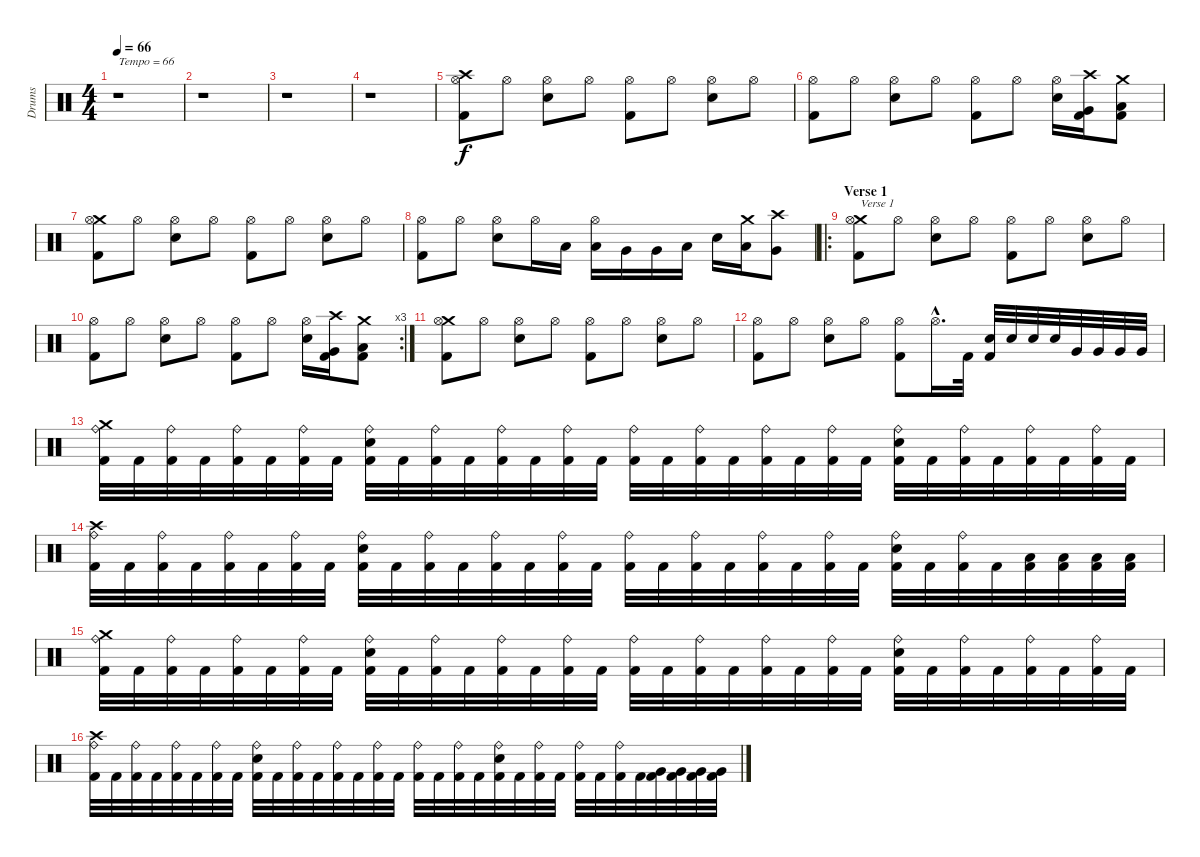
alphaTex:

\track ("Drums" "Drums") {instrument percussion}
\staff {score}
\articulation defaults
\ts (4 4)
\tempo 66
\clef neutral
\ks c
r.1{txt "Tempo = 66" dy f} |
r.1 |
r.1 |
r.1 |
("Crash high (hit)" "Hi-Hat (open)" "Kick (hit) 2").8 "Hi-Hat (open)".8 ("Hi-Hat (open)" "Electric Snare (hit)").8 "Hi-Hat (open)".8 ("Hi-Hat (open)" "Kick (hit) 2").8 "Hi-Hat (open)".8 ("Hi-Hat (open)" "Electric Snare (hit)").8 "Hi-Hat (open)".8 |
("Hi-Hat (open)" "Kick (hit) 2").8 "Hi-Hat (open)".8 ("Hi-Hat (open)" "Electric Snare (hit)").8 "Hi-Hat (open)".8 ("Hi-Hat (open)" "Kick (hit) 2").8 "Hi-Hat (open)".8 ("Hi-Hat (open)" "Electric Snare (hit)").16 ("Crash high (hit)" "Very Low Tom (hit)" "Kick (hit) 2").16 ("Crash medium (hit)" "Low Floor Tom (hit)" "Kick (hit) 2").8 |
("Crash medium (hit)" "Hi-Hat (open)" "Kick (hit) 2").8 "Hi-Hat (open)".8 ("Hi-Hat (open)" "Electric Snare (hit)").8 "Hi-Hat (open)".8 ("Hi-Hat (open)" "Kick (hit) 2").8 "Hi-Hat (open)".8 ("Hi-Hat (open)" "Electric Snare (hit)").8 "Hi-Hat (open)".8 |
("Hi-Hat (open)" "Kick (hit) 2").8 "Hi-Hat (open)".8 ("Hi-Hat (open)" "Electric Snare (hit)").8 "Hi-Hat (open)".16 "Low Floor Tom (hit)".16 ("Hi-Hat (open)" "Low Floor Tom (hit)").16 "Very Low Tom (hit)".16 "Very Low Tom (hit)".16 "Low Tom (hit)".16 "Electric Snare (hit)".16 ("Crash medium (hit)" "Low Tom (hit)").16 ("Crash high (hit)" "Very Low Tom (hit)").8 |
\ro
\section ("" "Verse 1")
("Crash medium (hit)" "Hi-Hat (open)" "Kick (hit) 2").8{txt "Verse 1"} "Hi-Hat (open)".8 ("Hi-Hat (open)" "Electric Snare (hit)").8 "Hi-Hat (open)".8 ("Hi-Hat (open)" "Kick (hit) 2").8 "Hi-Hat (open)".8 ("Hi-Hat (open)" "Electric Snare (hit)").8 "Hi-Hat (open)".8 |
\rc 3
("Hi-Hat (open)" "Kick (hit) 2").8 "Hi-Hat (open)".8 ("Hi-Hat (open)" "Electric Snare (hit)").8 "Hi-Hat (open)".8 ("Hi-Hat (open)" "Kick (hit) 2").8 "Hi-Hat (open)".8 ("Hi-Hat (open)" "Electric Snare (hit)").16 ("Crash high (hit)" "Very Low Tom (hit)" "Kick (hit) 2").16 ("Crash medium (hit)" "Low Floor Tom (hit)" "Kick (hit) 2").8 |
("Crash medium (hit)" "Hi-Hat (open)" "Kick (hit) 2").8 "Hi-Hat (open)".8 ("Hi-Hat (open)" "Electric Snare (hit)").8 "Hi-Hat (open)".8 ("Hi-Hat (open)" "Kick (hit) 2").8 "Hi-Hat (open)".8 ("Hi-Hat (open)" "Electric Snare (hit)").8 "Hi-Hat (open)".8 |
("Hi-Hat (open)" "Kick (hit) 2").8 "Hi-Hat (open)".8 ("Hi-Hat (open)" "Electric Snare (hit)").8 "Hi-Hat (open)".8 ("Hi-Hat (open)" "Kick (hit) 2").8 "Hi-Hat (open)"{hac}.16{d} "Kick (hit) 2".32 ("Electric Snare (hit)" "Kick (hit) 2").32 "Electric Snare (hit)".32 "Electric Snare (hit)".32 "Electric Snare (hit)".32 "Very Low Tom (hit)".32 "Very Low Tom (hit)".32 "Very Low Tom (hit)".32 "Very Low Tom (hit)".32 |
("Crash medium (hit)" "Ride (bell)" "Kick (hit) 2").32 "Kick (hit) 2".32 ("Ride (bell)" "Kick (hit) 2").32 "Kick (hit) 2".32 ("Ride (bell)" "Kick (hit) 2").32 "Kick (hit) 2".32 ("Ride (bell)" "Kick (hit) 2").32 "Kick (hit) 2".32 ("Ride (bell)" "Electric Snare (hit)" "Kick (hit) 2").32 "Kick (hit) 2".32 ("Ride (bell)" "Kick (hit) 2").32 "Kick (hit) 2".32 ("Ride (bell)" "Kick (hit) 2").32 "Kick (hit) 2".32 ("Ride (bell)" "Kick (hit) 2").32 "Kick (hit) 2".32 ("Ride (bell)" "Kick (hit) 2").32 "Kick (hit) 2".32 ("Ride (bell)" "Kick (hit) 2").32 "Kick (hit) 2".32 ("Ride (bell)" "Kick (hit) 2").32 "Kick (hit) 2".32 ("Ride (bell)" "Kick (hit) 2").32 "Kick (hit) 2".32 ("Ride (bell)" "Electric Snare (hit)" "Kick (hit) 2").32 "Kick (hit) 2".32 ("Ride (bell)" "Kick (hit) 2").32 "Kick (hit) 2".32 ("Ride (bell)" "Kick (hit) 2").32 "Kick (hit) 2".32 ("Ride (bell)" "Kick (hit) 2").32 "Kick (hit) 2".32 |
("Crash high (hit)" "Ride (bell)" "Kick (hit) 2").32 "Kick (hit) 2".32 ("Ride (bell)" "Kick (hit) 2").32 "Kick (hit) 2".32 ("Ride (bell)" "Kick (hit) 2").32 "Kick (hit) 2".32 ("Ride (bell)" "Kick (hit) 2").32 "Kick (hit) 2".32 ("Ride (bell)" "Electric Snare (hit)" "Kick (hit) 2").32 "Kick (hit) 2".32 ("Ride (bell)" "Kick (hit) 2").32 "Kick (hit) 2".32 ("Ride (bell)" "Kick (hit) 2").32 "Kick (hit) 2".32 ("Ride (bell)" "Kick (hit) 2").32 "Kick (hit) 2".32 ("Ride (bell)" "Kick (hit) 2").32 "Kick (hit) 2".32 ("Ride (bell)" "Kick (hit) 2").32 "Kick (hit) 2".32 ("Ride (bell)" "Kick (hit) 2").32 "Kick (hit) 2".32 ("Ride (bell)" "Kick (hit) 2").32 "Kick (hit) 2".32 ("Ride (bell)" "Electric Snare (hit)" "Kick (hit) 2").32 "Kick (hit) 2".32 ("Ride (bell)" "Kick (hit) 2").32 "Kick (hit) 2".32 ("Low Floor Tom (hit)" "Kick (hit) 2").32 ("Low Floor Tom (hit)" "Kick (hit) 2").32 ("Low Floor Tom (hit)" "Kick (hit) 2").32 ("Low Floor Tom (hit)" "Kick (hit) 2").32 |
("Crash medium (hit)" "Ride (bell)" "Kick (hit) 2").32 "Kick (hit) 2".32 ("Ride (bell)" "Kick (hit) 2").32 "Kick (hit) 2".32 ("Ride (bell)" "Kick (hit) 2").32 "Kick (hit) 2".32 ("Ride (bell)" "Kick (hit) 2").32 "Kick (hit) 2".32 ("Ride (bell)" "Electric Snare (hit)" "Kick (hit) 2").32 "Kick (hit) 2".32 ("Ride (bell)" "Kick (hit) 2").32 "Kick (hit) 2".32 ("Ride (bell)" "Kick (hit) 2").32 "Kick (hit) 2".32 ("Ride (bell)" "Kick (hit) 2").32 "Kick (hit) 2".32 ("Ride (bell)" "Kick (hit) 2").32 "Kick (hit) 2".32 ("Ride (bell)" "Kick (hit) 2").32 "Kick (hit) 2".32 ("Ride (bell)" "Kick (hit) 2").32 "Kick (hit) 2".32 ("Ride (bell)" "Kick (hit) 2").32 "Kick (hit) 2".32 ("Ride (bell)" "Electric Snare (hit)" "Kick (hit) 2").32 "Kick (hit) 2".32 ("Ride (bell)" "Kick (hit) 2").32 "Kick (hit) 2".32 ("Ride (bell)" "Kick (hit) 2").32 "Kick (hit) 2".32 ("Ride (bell)" "Kick (hit) 2").32 "Kick (hit) 2".32 |
("Crash high (hit)" "Ride (bell)" "Kick (hit) 2").32 "Kick (hit) 2".32 ("Ride (bell)" "Kick (hit) 2").32 "Kick (hit) 2".32 ("Ride (bell)" "Kick (hit) 2").32 "Kick (hit) 2".32 ("Ride (bell)" "Kick (hit) 2").32 "Kick (hit) 2".32 ("Ride (bell)" "Electric Snare (hit)" "Kick (hit) 2").32 "Kick (hit) 2".32 ("Ride (bell)" "Kick (hit) 2").32 "Kick (hit) 2".32 ("Ride (bell)" "Kick (hit) 2").32 "Kick (hit) 2".32 ("Ride (bell)" "Kick (hit) 2").32 "Kick (hit) 2".32 ("Ride (bell)" "Kick (hit) 2").32 "Kick (hit) 2".32 ("Ride (bell)" "Kick (hit) 2").32 "Kick (hit) 2".32 ("Ride (bell)" "Electric Snare (hit)" "Kick (hit) 2").32 "Kick (hit) 2".32 ("Ride (bell)" "Kick (hit) 2").32 "Kick (hit) 2".32 ("Ride (bell)" "Kick (hit) 2").32 "Kick (hit) 2".32 ("Ride (bell)" "Kick (hit) 2").32 "Kick (hit) 2".32 ("Very Low Tom (hit)" "Kick (hit) 2").32 ("Very Low Tom (hit)" "Kick (hit) 2").32 ("Very Low Tom (hit)" "Kick (hit) 2").32 ("Very Low Tom (hit)" "Kick (hit) 2").32
